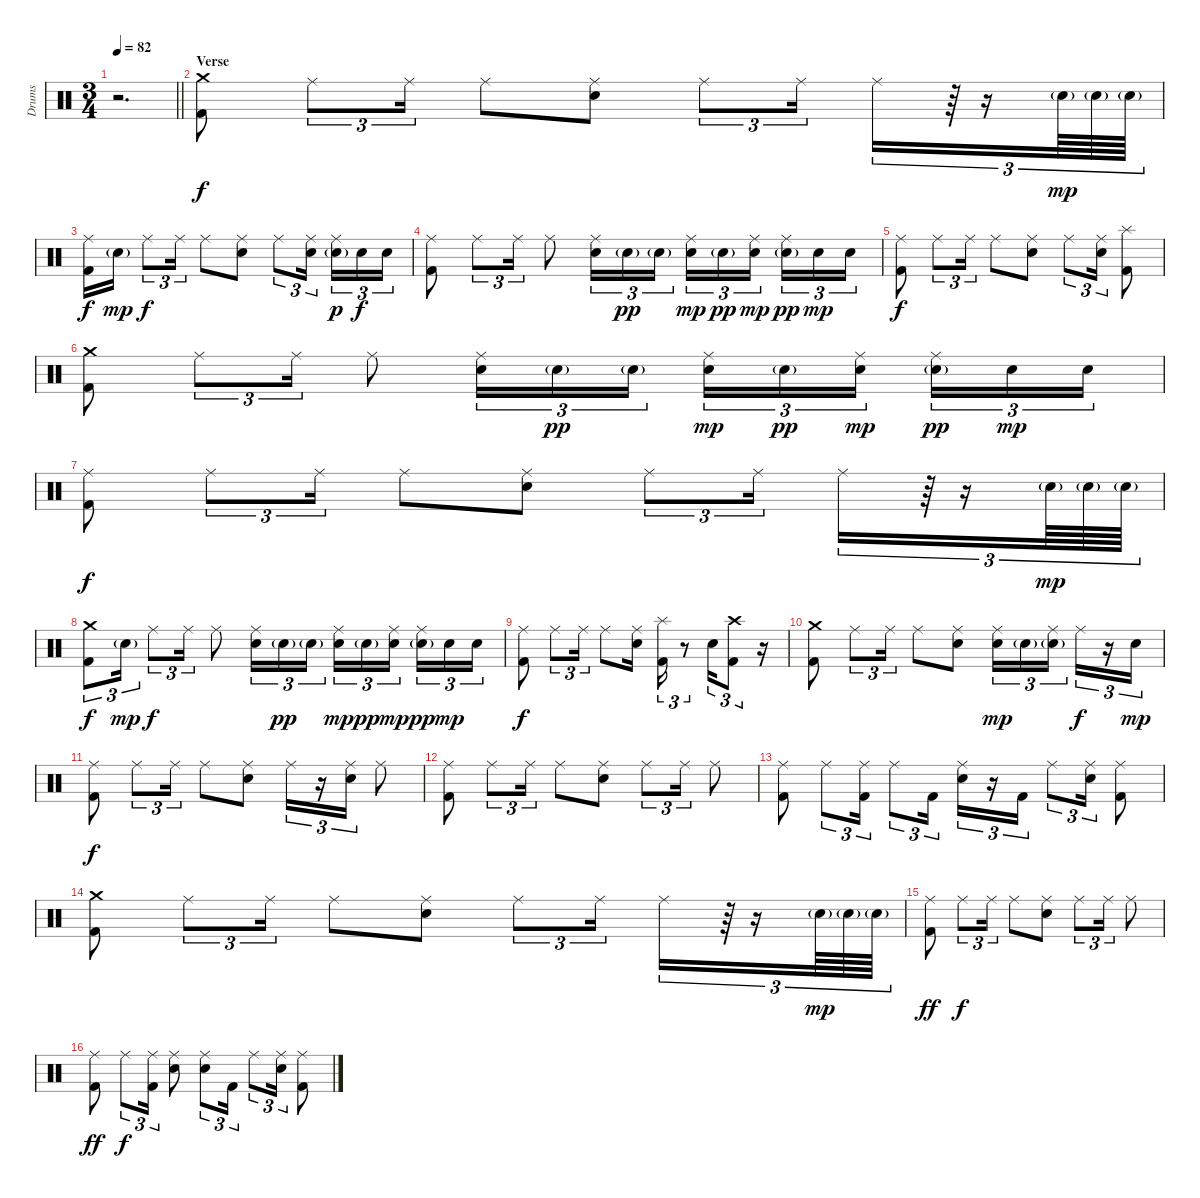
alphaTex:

\track ("Drums" "Drums") {instrument percussion}
\staff {score}
\articulation defaults
\ts (3 4)
\tempo 82
\clef neutral
\barLineRight lightlight
\ks c
r.2{d dy f} |
\section ("" "Verse")
("Crash medium (hit)" "Kick (hit) 2").8 "Ride (middle)".8{tu (3 2)} "Ride (middle)".16{tu (3 2)} "Ride (middle)".8 ("Ride (middle)" "Electric Snare (hit)").8 "Ride (middle)".8{tu (3 2)} "Ride (middle)".16{tu (3 2)} "Ride (middle)".16{tu (3 2)} r.64{tu (3 2)} r.16{tu (3 2)} "Electric Snare (hit)"{g}.64{tu (3 2) dy mp} "Electric Snare (hit)"{g}.64{tu (3 2)} "Electric Snare (hit)"{g}.64{tu (3 2)} |
("Ride (middle)" "Kick (hit) 2").16{dy f} "Electric Snare (hit)"{g}.16{dy mp} "Ride (middle)".8{tu (3 2) dy f} "Ride (middle)".16{tu (3 2)} "Ride (middle)".8 ("Ride (middle)" "Electric Snare (hit)").8 "Ride (middle)".8{tu (3 2)} ("Ride (middle)" "Electric Snare (hit)").16{tu (3 2) beam splitsecondary} ("Ride (middle)" "Electric Snare (hit)"{g}).16{tu (3 2) dy p} "Electric Snare (hit)".16{tu (3 2) dy f} "Electric Snare (hit)".16{tu (3 2)} |
("Ride (middle)" "Kick (hit) 2").8 "Ride (middle)".8{tu (3 2)} "Ride (middle)".16{tu (3 2)} "Ride (middle)".8 ("Ride (middle)" "Electric Snare (hit)").16{tu (3 2)} "Electric Snare (hit)"{g}.16{tu (3 2) dy pp} "Electric Snare (hit)"{g}.16{tu (3 2)} ("Ride (middle)" "Electric Snare (hit)").16{tu (3 2) dy mp} "Electric Snare (hit)"{g}.16{tu (3 2) dy pp} ("Ride (middle)" "Electric Snare (hit)").16{tu (3 2) dy mp beam splitsecondary} ("Ride (middle)" "Electric Snare (hit)"{g}).16{tu (3 2) dy pp} "Electric Snare (hit)".16{tu (3 2) dy mp} "Electric Snare (hit)".16{tu (3 2)} |
("Ride (middle)" "Kick (hit) 2").8{dy f} "Ride (middle)".8{tu (3 2)} "Ride (middle)".16{tu (3 2)} "Ride (middle)".8 ("Ride (middle)" "Electric Snare (hit)").8 "Ride (middle)".8{tu (3 2)} ("Ride (middle)" "Electric Snare (hit)").16{tu (3 2)} ("Splash (hit)" "Kick (hit) 2").8 |
("Crash medium (hit)" "Kick (hit) 2").8 "Ride (middle)".8{tu (3 2)} "Ride (middle)".16{tu (3 2)} "Ride (middle)".8 ("Ride (middle)" "Electric Snare (hit)").16{tu (3 2)} "Electric Snare (hit)"{g}.16{tu (3 2) dy pp} "Electric Snare (hit)"{g}.16{tu (3 2)} ("Ride (middle)" "Electric Snare (hit)").16{tu (3 2) dy mp} "Electric Snare (hit)"{g}.16{tu (3 2) dy pp} ("Ride (middle)" "Electric Snare (hit)").16{tu (3 2) dy mp beam splitsecondary} ("Ride (middle)" "Electric Snare (hit)"{g}).16{tu (3 2) dy pp} "Electric Snare (hit)".16{tu (3 2) dy mp} "Electric Snare (hit)".16{tu (3 2)} |
("Ride (middle)" "Kick (hit) 2").8{dy f} "Ride (middle)".8{tu (3 2)} "Ride (middle)".16{tu (3 2)} "Ride (middle)".8 ("Ride (middle)" "Electric Snare (hit)").8 "Ride (middle)".8{tu (3 2)} "Ride (middle)".16{tu (3 2)} "Ride (middle)".16{tu (3 2)} r.64{tu (3 2)} r.16{tu (3 2)} "Electric Snare (hit)"{g}.64{tu (3 2) dy mp} "Electric Snare (hit)"{g}.64{tu (3 2)} "Electric Snare (hit)"{g}.64{tu (3 2)} |
("Crash medium (hit)" "Kick (hit) 2").8{tu (3 2) dy f} "Electric Snare (hit)"{g}.16{tu (3 2) dy mp} "Ride (middle)".8{tu (3 2) dy f} "Ride (middle)".16{tu (3 2)} "Ride (middle)".8 ("Ride (middle)" "Electric Snare (hit)").16{tu (3 2)} "Electric Snare (hit)"{g}.16{tu (3 2) dy pp} "Electric Snare (hit)"{g}.16{tu (3 2)} ("Ride (middle)" "Electric Snare (hit)").16{tu (3 2) dy mp} "Electric Snare (hit)"{g}.16{tu (3 2) dy pp} ("Ride (middle)" "Electric Snare (hit)").16{tu (3 2) dy mp beam splitsecondary} ("Ride (middle)" "Electric Snare (hit)"{g}).16{tu (3 2) dy pp} "Electric Snare (hit)".16{tu (3 2) dy mp} "Electric Snare (hit)".16{tu (3 2)} |
("Ride (middle)" "Kick (hit) 2").8{dy f} "Ride (middle)".8{tu (3 2)} "Ride (middle)".16{tu (3 2)} "Ride (middle)".8 ("Ride (middle)" "Electric Snare (hit)").16 ("Splash (hit)" "Kick (hit) 2").16{tu (3 2)} r.8{tu (3 2)} "Electric Snare (hit)".16{tu (3 2)} ("Crash high (hit)" "Kick (hit) 2").8{tu (3 2)} r.16 |
("Crash medium (hit)" "Kick (hit) 2").8 "Ride (middle)".8{tu (3 2)} "Ride (middle)".16{tu (3 2)} "Ride (middle)".8 ("Ride (middle)" "Electric Snare (hit)").8 ("Ride (middle)" "Electric Snare (hit)").16{tu (3 2) dy mp} "Electric Snare (hit)"{g}.16{tu (3 2)} ("Ride (middle)" "Electric Snare (hit)"{g}).16{tu (3 2) beam splitsecondary} "Ride (middle)".16{tu (3 2) dy f} r.16{tu (3 2)} "Electric Snare (hit)".16{tu (3 2) dy mp} |
("Ride (middle)" "Kick (hit) 2").8{dy f} "Ride (middle)".8{tu (3 2)} "Ride (middle)".16{tu (3 2)} "Ride (middle)".8 ("Ride (middle)" "Electric Snare (hit)").8 "Ride (middle)".16{tu (3 2)} r.16{tu (3 2)} ("Ride (middle)" "Electric Snare (hit)").16{tu (3 2)} "Ride (middle)".8 |
("Ride (middle)" "Kick (hit) 2").8 "Ride (middle)".8{tu (3 2)} "Ride (middle)".16{tu (3 2)} "Ride (middle)".8 ("Ride (middle)" "Electric Snare (hit)").8 "Ride (middle)".8{tu (3 2)} "Ride (middle)".16{tu (3 2)} "Ride (middle)".8 |
("Ride (middle)" "Kick (hit) 2").8 "Ride (middle)".8{tu (3 2)} ("Ride (middle)" "Kick (hit) 2").16{tu (3 2)} "Ride (middle)".8{tu (3 2)} "Kick (hit) 2".16{tu (3 2)} ("Ride (middle)" "Electric Snare (hit)").16{tu (3 2)} r.16{tu (3 2)} "Kick (hit) 2".16{tu (3 2)} "Ride (middle)".8{tu (3 2)} ("Ride (middle)" "Electric Snare (hit)").16{tu (3 2)} ("Ride (middle)" "Kick (hit) 2").8 |
("Crash medium (hit)" "Kick (hit) 2").8 "Ride (middle)".8{tu (3 2)} "Ride (middle)".16{tu (3 2)} "Ride (middle)".8 ("Ride (middle)" "Electric Snare (hit)").8 "Ride (middle)".8{tu (3 2)} "Ride (middle)".16{tu (3 2)} "Ride (middle)".16{tu (3 2)} r.64{tu (3 2)} r.16{tu (3 2)} "Electric Snare (hit)"{g}.64{tu (3 2) dy mp} "Electric Snare (hit)"{g}.64{tu (3 2)} "Electric Snare (hit)"{g}.64{tu (3 2)} |
("Ride (middle)" "Kick (hit) 2").8{dy ff} "Ride (middle)".8{tu (3 2) dy f} "Ride (middle)".16{tu (3 2)} "Ride (middle)".8 ("Ride (middle)" "Electric Snare (hit)").8 "Ride (middle)".8{tu (3 2)} "Ride (middle)".16{tu (3 2)} "Ride (middle)".8 |
("Ride (middle)" "Kick (hit) 2").8{dy ff} "Ride (middle)".8{tu (3 2) dy f} ("Ride (middle)" "Kick (hit) 2").16{tu (3 2)} ("Ride (middle)" "Electric Snare (hit)").8 ("Ride (middle)" "Electric Snare (hit)").8{tu (3 2)} "Kick (hit) 2".16{tu (3 2)} "Ride (middle)".8{tu (3 2)} ("Ride (middle)" "Electric Snare (hit)").16{tu (3 2)} ("Ride (middle)" "Kick (hit) 2").8
